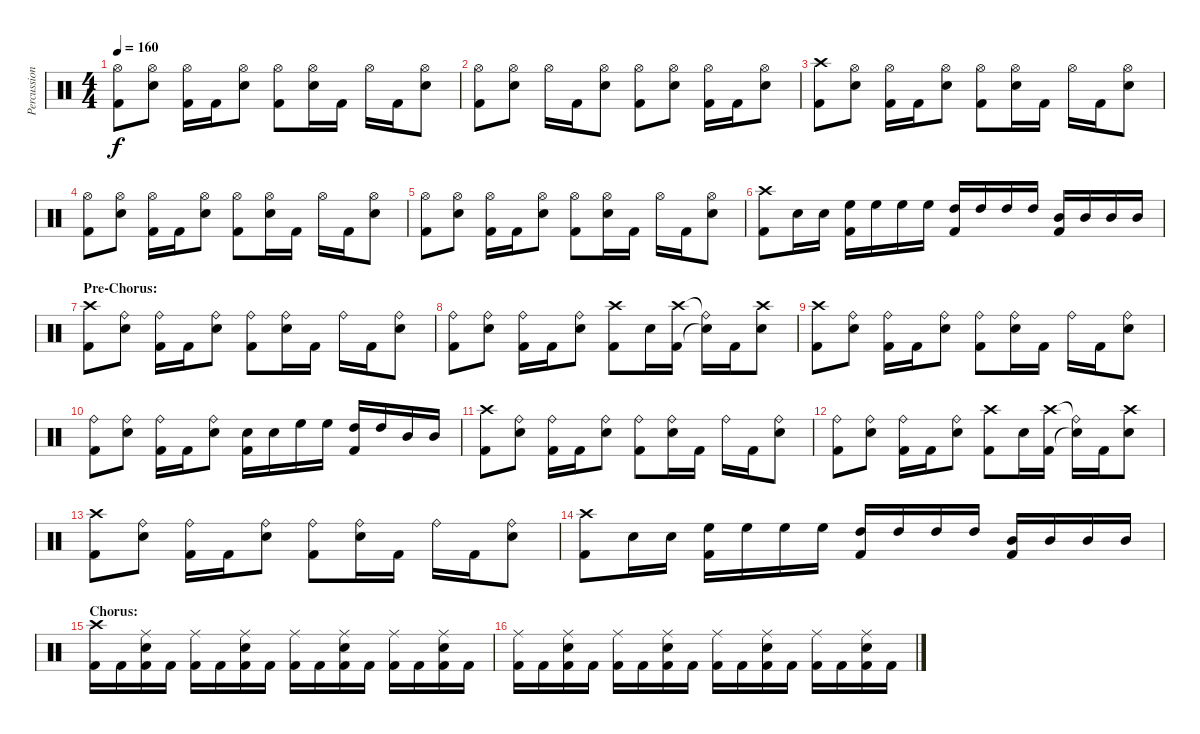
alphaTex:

\track ("Percussion" "Percussion") {instrument percussion}
\staff {score}
\articulation defaults
\ts (4 4)
\tempo 160
\clef neutral
\ks c
("Hi-Hat (open)" "Kick (hit) 2").8{dy f} ("Hi-Hat (open)" "Electric Snare (hit)").8 ("Hi-Hat (open)" "Kick (hit) 2").16 "Kick (hit) 2".16 ("Hi-Hat (open)" "Electric Snare (hit)").8 ("Hi-Hat (open)" "Kick (hit) 2").8 ("Hi-Hat (open)" "Electric Snare (hit)").16 "Kick (hit) 2".16 "Hi-Hat (open)".16 "Kick (hit) 2".16 ("Hi-Hat (open)" "Electric Snare (hit)").8 |
("Hi-Hat (open)" "Kick (hit) 2").8 ("Hi-Hat (open)" "Electric Snare (hit)").8 "Hi-Hat (open)".16 "Kick (hit) 2".16 ("Hi-Hat (open)" "Electric Snare (hit)").8 ("Hi-Hat (open)" "Kick (hit) 2").8 ("Hi-Hat (open)" "Electric Snare (hit)").8 ("Hi-Hat (open)" "Kick (hit) 2").16 "Kick (hit) 2".16 ("Hi-Hat (open)" "Electric Snare (hit)").8 |
("Crash high (hit)" "Kick (hit) 2").8 ("Hi-Hat (open)" "Electric Snare (hit)").8 ("Hi-Hat (open)" "Kick (hit) 2").16 "Kick (hit) 2".16 ("Hi-Hat (open)" "Electric Snare (hit)").8 ("Hi-Hat (open)" "Kick (hit) 2").8 ("Hi-Hat (open)" "Electric Snare (hit)").16 "Kick (hit) 2".16 "Hi-Hat (open)".16 "Kick (hit) 2".16 ("Hi-Hat (open)" "Electric Snare (hit)").8 |
("Hi-Hat (open)" "Kick (hit) 2").8 ("Hi-Hat (open)" "Electric Snare (hit)").8 ("Hi-Hat (open)" "Kick (hit) 2").16 "Kick (hit) 2".16 ("Hi-Hat (open)" "Electric Snare (hit)").8 ("Hi-Hat (open)" "Kick (hit) 2").8 ("Hi-Hat (open)" "Electric Snare (hit)").16 "Kick (hit) 2".16 "Hi-Hat (open)".16 "Kick (hit) 2".16 ("Hi-Hat (open)" "Electric Snare (hit)").8 |
("Hi-Hat (open)" "Kick (hit) 2").8 ("Hi-Hat (open)" "Electric Snare (hit)").8 ("Hi-Hat (open)" "Kick (hit) 2").16 "Kick (hit) 2".16 ("Hi-Hat (open)" "Electric Snare (hit)").8 ("Hi-Hat (open)" "Kick (hit) 2").8 ("Hi-Hat (open)" "Electric Snare (hit)").16 "Kick (hit) 2".16 "Hi-Hat (open)".16 "Kick (hit) 2".16 ("Hi-Hat (open)" "Electric Snare (hit)").8 |
("Crash high (hit)" "Kick (hit) 2").8 "Electric Snare (hit)".16 "Electric Snare (hit)".16 ("High Floor Tom (hit)" "Kick (hit) 2").16 "High Floor Tom (hit)".16 "High Floor Tom (hit)".16 "High Floor Tom (hit)".16 ("High Tom (hit)" "Kick (hit) 2").16 "High Tom (hit)".16 "High Tom (hit)".16 "High Tom (hit)".16 ("Mid Tom (hit)" "Kick (hit) 2").16 "Mid Tom (hit)".16 "Mid Tom (hit)".16 "Mid Tom (hit)".16 |
\section ("" "Pre-Chorus:")
("Crash high (hit)" "Kick (hit) 2").8 ("Ride (bell)" "Electric Snare (hit)").8 ("Ride (bell)" "Kick (hit) 2").16 "Kick (hit) 2".16 ("Ride (bell)" "Electric Snare (hit)").8 ("Ride (bell)" "Kick (hit) 2").8 ("Ride (bell)" "Electric Snare (hit)").16 "Kick (hit) 2".16 "Ride (bell)".16 "Kick (hit) 2".16 ("Ride (bell)" "Electric Snare (hit)").8 |
("Ride (bell)" "Kick (hit) 2").8 ("Ride (bell)" "Electric Snare (hit)").8 ("Ride (bell)" "Kick (hit) 2").16 "Kick (hit) 2".16 ("Ride (bell)" "Electric Snare (hit)").8 ("Crash high (hit)" "Kick (hit) 2").8 "Electric Snare (hit)".16 ("Crash high (hit)" "Kick (hit) 2").16 ("Ride (bell)"{t} "Snare (hit)"{t}).16 "Kick (hit) 2".16 ("Crash high (hit)" "Electric Snare (hit)").8 |
("Crash high (hit)" "Kick (hit) 2").8 ("Ride (bell)" "Electric Snare (hit)").8 ("Ride (bell)" "Kick (hit) 2").16 "Kick (hit) 2".16 ("Ride (bell)" "Electric Snare (hit)").8 ("Ride (bell)" "Kick (hit) 2").8 ("Ride (bell)" "Electric Snare (hit)").16 "Kick (hit) 2".16 "Ride (bell)".16 "Kick (hit) 2".16 ("Ride (bell)" "Electric Snare (hit)").8 |
("Ride (bell)" "Kick (hit) 2").8 ("Ride (bell)" "Electric Snare (hit)").8 ("Ride (bell)" "Kick (hit) 2").16 "Kick (hit) 2".16 ("Ride (bell)" "Electric Snare (hit)").8 ("Electric Snare (hit)" "Kick (hit) 2").16 "Electric Snare (hit)".16 "High Floor Tom (hit)".16 "High Floor Tom (hit)".16 ("High Tom (hit)" "Kick (hit) 2").16 "High Tom (hit)".16 "Mid Tom (hit)".16 "Mid Tom (hit)".16 |
("Crash high (hit)" "Kick (hit) 2").8 ("Ride (bell)" "Electric Snare (hit)").8 ("Ride (bell)" "Kick (hit) 2").16 "Kick (hit) 2".16 ("Ride (bell)" "Electric Snare (hit)").8 ("Ride (bell)" "Kick (hit) 2").8 ("Ride (bell)" "Electric Snare (hit)").16 "Kick (hit) 2".16 "Ride (bell)".16 "Kick (hit) 2".16 ("Ride (bell)" "Electric Snare (hit)").8 |
("Ride (bell)" "Kick (hit) 2").8 ("Ride (bell)" "Electric Snare (hit)").8 ("Ride (bell)" "Kick (hit) 2").16 "Kick (hit) 2".16 ("Ride (bell)" "Electric Snare (hit)").8 ("Crash high (hit)" "Kick (hit) 2").8 "Electric Snare (hit)".16 ("Crash high (hit)" "Kick (hit) 2").16 ("Ride (bell)"{t} "Snare (hit)"{t}).16 "Kick (hit) 2".16 ("Crash high (hit)" "Electric Snare (hit)").8 |
("Crash high (hit)" "Kick (hit) 2").8 ("Ride (bell)" "Electric Snare (hit)").8 ("Ride (bell)" "Kick (hit) 2").16 "Kick (hit) 2".16 ("Ride (bell)" "Electric Snare (hit)").8 ("Ride (bell)" "Kick (hit) 2").8 ("Ride (bell)" "Electric Snare (hit)").16 "Kick (hit) 2".16 "Ride (bell)".16 "Kick (hit) 2".16 ("Ride (bell)" "Electric Snare (hit)").8 |
("Crash high (hit)" "Kick (hit) 2").8 "Electric Snare (hit)".16 "Electric Snare (hit)".16 ("High Floor Tom (hit)" "Kick (hit) 2").16 "High Floor Tom (hit)".16 "High Floor Tom (hit)".16 "High Floor Tom (hit)".16 ("High Tom (hit)" "Kick (hit) 2").16 "High Tom (hit)".16 "High Tom (hit)".16 "High Tom (hit)".16 ("Mid Tom (hit)" "Kick (hit) 2").16 "Mid Tom (hit)".16 "Mid Tom (hit)".16 "Mid Tom (hit)".16 |
\section ("" "Chorus:")
("Crash high (hit)" "Kick (hit) 2").16 "Kick (hit) 2".16 ("Ride (middle)" "Electric Snare (hit)" "Kick (hit) 2").16 "Kick (hit) 2".16 ("Ride (middle)" "Kick (hit) 2").16 "Kick (hit) 2".16 ("Ride (middle)" "Electric Snare (hit)" "Kick (hit) 2").16 "Kick (hit) 2".16 ("Ride (middle)" "Kick (hit) 2").16 "Kick (hit) 2".16 ("Ride (middle)" "Electric Snare (hit)" "Kick (hit) 2").16 "Kick (hit) 2".16 ("Ride (middle)" "Kick (hit) 2").16 "Kick (hit) 2".16 ("Ride (middle)" "Electric Snare (hit)" "Kick (hit) 2").16 "Kick (hit) 2".16 |
("Ride (middle)" "Kick (hit) 2").16 "Kick (hit) 2".16 ("Ride (middle)" "Electric Snare (hit)" "Kick (hit) 2").16 "Kick (hit) 2".16 ("Ride (middle)" "Kick (hit) 2").16 "Kick (hit) 2".16 ("Ride (middle)" "Electric Snare (hit)" "Kick (hit) 2").16 "Kick (hit) 2".16 ("Ride (middle)" "Kick (hit) 2").16 "Kick (hit) 2".16 ("Ride (middle)" "Electric Snare (hit)" "Kick (hit) 2").16 "Kick (hit) 2".16 ("Ride (middle)" "Kick (hit) 2").16 "Kick (hit) 2".16 ("Ride (middle)" "Electric Snare (hit)" "Kick (hit) 2").16 "Kick (hit) 2".16
